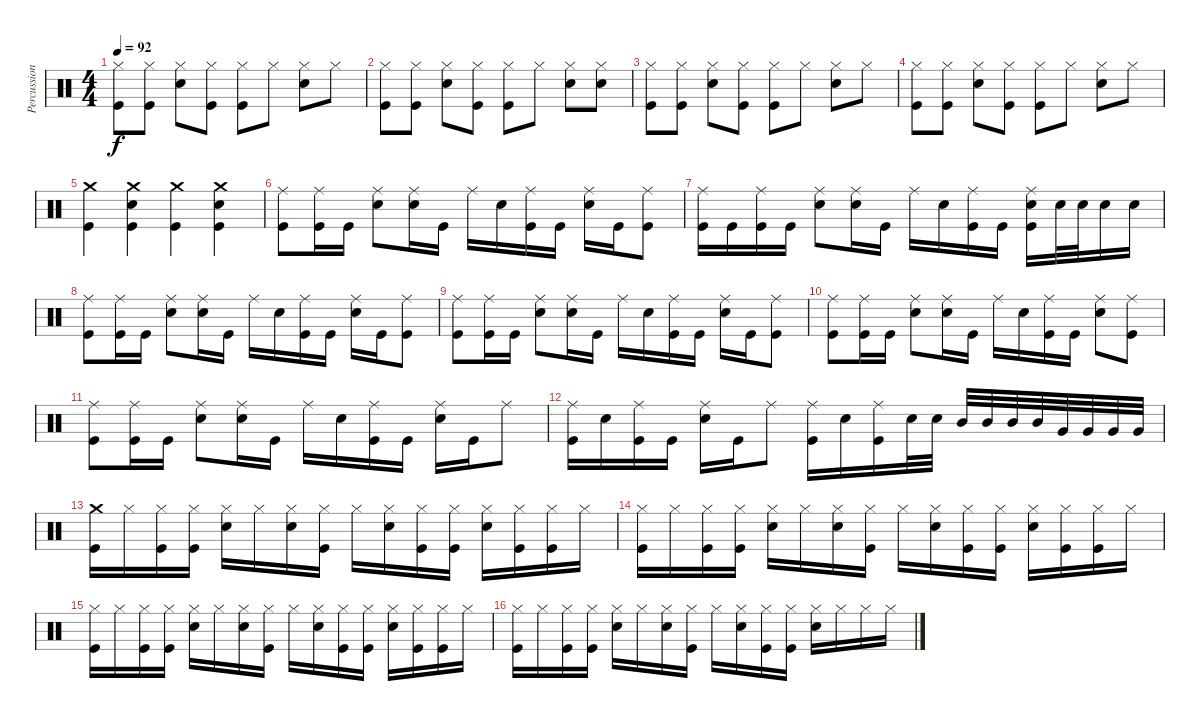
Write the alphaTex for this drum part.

\track ("Percussion" "Percussion") {instrument percussion}
\staff {score}
\articulation defaults
\ts (4 4)
\tempo 92
\clef neutral
\ks c
("Hi-Hat (closed)" "Kick (hit)").8{dy f} ("Hi-Hat (closed)" "Kick (hit)").8 ("Hi-Hat (closed)" "Snare (hit) 2").8 ("Hi-Hat (closed)" "Kick (hit)").8 ("Hi-Hat (closed)" "Kick (hit)").8 "Hi-Hat (closed)".8 ("Hi-Hat (closed)" "Snare (hit) 2").8 "Hi-Hat (closed)".8 |
("Hi-Hat (closed)" "Kick (hit)").8 ("Hi-Hat (closed)" "Kick (hit)").8 ("Hi-Hat (closed)" "Snare (hit) 2").8 ("Hi-Hat (closed)" "Kick (hit)").8 ("Hi-Hat (closed)" "Kick (hit)").8 "Hi-Hat (closed)".8 ("Hi-Hat (closed)" "Snare (hit) 2").8 ("Hi-Hat (closed)" "Snare (hit) 2").8 |
("Hi-Hat (closed)" "Kick (hit)").8 ("Hi-Hat (closed)" "Kick (hit)").8 ("Hi-Hat (closed)" "Snare (hit) 2").8 ("Hi-Hat (closed)" "Kick (hit)").8 ("Hi-Hat (closed)" "Kick (hit)").8 "Hi-Hat (closed)".8 ("Hi-Hat (closed)" "Snare (hit) 2").8 "Hi-Hat (closed)".8 |
("Hi-Hat (closed)" "Kick (hit)").8 ("Hi-Hat (closed)" "Kick (hit)").8 ("Hi-Hat (closed)" "Snare (hit) 2").8 ("Hi-Hat (closed)" "Kick (hit)").8 ("Hi-Hat (closed)" "Kick (hit)").8 "Hi-Hat (closed)".8 ("Hi-Hat (closed)" "Snare (hit) 2").8 "Hi-Hat (closed)".8 |
("Crash medium (hit)" "Kick (hit)").4 ("Crash medium (hit)" "Snare (hit) 2" "Kick (hit)").4 ("Crash medium (hit)" "Kick (hit)").4 ("Crash medium (hit)" "Snare (hit) 2" "Kick (hit)").4 |
("Ride (middle)" "Kick (hit)").8 ("Ride (middle)" "Kick (hit)").16 "Kick (hit)".16 ("Ride (middle)" "Snare (hit) 2").8 ("Ride (middle)" "Snare (hit) 2").16 "Kick (hit)".16 "Ride (middle)".16 "Snare (hit) 2".16 ("Ride (middle)" "Kick (hit)").16 "Kick (hit)".16 ("Ride (middle)" "Snare (hit) 2").16 "Kick (hit)".16 ("Ride (middle)" "Kick (hit)").8 |
("Ride (middle)" "Kick (hit)").16 "Kick (hit)".16 ("Ride (middle)" "Kick (hit)").16 "Kick (hit)".16 ("Ride (middle)" "Snare (hit) 2").8 ("Ride (middle)" "Snare (hit) 2").16 "Kick (hit)".16 "Ride (middle)".16 "Snare (hit) 2".16 ("Ride (middle)" "Kick (hit)").16 "Kick (hit)".16 ("Ride (middle)" "Snare (hit) 2" "Kick (hit)").16 "Snare (hit) 2".32 "Snare (hit) 2".32 "Snare (hit) 2".16 "Snare (hit) 2".16 |
("Ride (middle)" "Kick (hit)").8 ("Ride (middle)" "Kick (hit)").16 "Kick (hit)".16 ("Ride (middle)" "Snare (hit) 2").8 ("Ride (middle)" "Snare (hit) 2").16 "Kick (hit)".16 "Ride (middle)".16 "Snare (hit) 2".16 ("Ride (middle)" "Kick (hit)").16 "Kick (hit)".16 ("Ride (middle)" "Snare (hit) 2").16 "Kick (hit)".16 ("Ride (middle)" "Kick (hit)").8 |
("Ride (middle)" "Kick (hit)").8 ("Ride (middle)" "Kick (hit)").16 "Kick (hit)".16 ("Ride (middle)" "Snare (hit) 2").8 ("Ride (middle)" "Snare (hit) 2").16 "Kick (hit)".16 "Ride (middle)".16 "Snare (hit) 2".16 ("Ride (middle)" "Kick (hit)").16 "Kick (hit)".16 ("Ride (middle)" "Snare (hit) 2").16 "Kick (hit)".16 ("Ride (middle)" "Kick (hit)").8 |
("Ride (middle)" "Kick (hit)").8 ("Ride (middle)" "Kick (hit)").16 "Kick (hit)".16 ("Ride (middle)" "Snare (hit) 2").8 ("Ride (middle)" "Snare (hit) 2").16 "Kick (hit)".16 "Ride (middle)".16 "Snare (hit) 2".16 ("Ride (middle)" "Kick (hit)").16 "Kick (hit)".16 ("Ride (middle)" "Snare (hit) 2").8 ("Ride (middle)" "Kick (hit)").8 |
("Ride (middle)" "Kick (hit)").8 ("Ride (middle)" "Kick (hit)").16 "Kick (hit)".16 ("Ride (middle)" "Snare (hit) 2").8 ("Ride (middle)" "Snare (hit) 2").16 "Kick (hit)".16 "Ride (middle)".16 "Snare (hit) 2".16 ("Ride (middle)" "Kick (hit)").16 "Kick (hit)".16 ("Ride (middle)" "Snare (hit) 2").16 "Kick (hit)".16 "Ride (middle)".8 |
("Ride (middle)" "Kick (hit)").16 "Snare (hit) 2".16 ("Ride (middle)" "Kick (hit)").16 "Kick (hit)".16 ("Ride (middle)" "Snare (hit) 2").16 "Kick (hit)".16 "Ride (middle)".8 ("Ride (middle)" "Kick (hit)").16 "Snare (hit) 2".16 ("Ride (middle)" "Kick (hit)").16 "Snare (hit) 2".32 "Snare (hit) 2".32 "Mid Tom (hit)".32 "Mid Tom (hit)".32 "Mid Tom (hit)".32 "Mid Tom (hit)".32 "Very Low Tom (hit)".32 "Very Low Tom (hit)".32 "Very Low Tom (hit)".32 "Very Low Tom (hit)".32 |
("Crash medium (hit)" "Kick (hit)").16 "Hi-Hat (closed)".16 ("Hi-Hat (closed)" "Kick (hit)").16 ("Hi-Hat (closed)" "Kick (hit)").16 ("Hi-Hat (closed)" "Snare (hit) 2").16 "Hi-Hat (closed)".16 ("Hi-Hat (closed)" "Snare (hit) 2").16 ("Hi-Hat (closed)" "Kick (hit)").16 "Hi-Hat (closed)".16 ("Hi-Hat (closed)" "Snare (hit) 2").16 ("Hi-Hat (closed)" "Kick (hit)").16 ("Hi-Hat (closed)" "Kick (hit)").16 ("Hi-Hat (closed)" "Snare (hit) 2").16 ("Hi-Hat (closed)" "Kick (hit)").16 ("Hi-Hat (closed)" "Kick (hit)").16 "Hi-Hat (closed)".16 |
("Hi-Hat (closed)" "Kick (hit)").16 "Hi-Hat (closed)".16 ("Hi-Hat (closed)" "Kick (hit)").16 ("Hi-Hat (closed)" "Kick (hit)").16 ("Hi-Hat (closed)" "Snare (hit) 2").16 "Hi-Hat (closed)".16 ("Hi-Hat (closed)" "Snare (hit) 2").16 ("Hi-Hat (closed)" "Kick (hit)").16 "Hi-Hat (closed)".16 ("Hi-Hat (closed)" "Snare (hit) 2").16 ("Hi-Hat (closed)" "Kick (hit)").16 ("Hi-Hat (closed)" "Kick (hit)").16 ("Hi-Hat (closed)" "Snare (hit) 2").16 ("Hi-Hat (closed)" "Kick (hit)").16 ("Hi-Hat (closed)" "Kick (hit)").16 "Hi-Hat (closed)".16 |
("Hi-Hat (closed)" "Kick (hit)").16 "Hi-Hat (closed)".16 ("Hi-Hat (closed)" "Kick (hit)").16 ("Hi-Hat (closed)" "Kick (hit)").16 ("Hi-Hat (closed)" "Snare (hit) 2").16 "Hi-Hat (closed)".16 ("Hi-Hat (closed)" "Snare (hit) 2").16 ("Hi-Hat (closed)" "Kick (hit)").16 "Hi-Hat (closed)".16 ("Hi-Hat (closed)" "Snare (hit) 2").16 ("Hi-Hat (closed)" "Kick (hit)").16 ("Hi-Hat (closed)" "Kick (hit)").16 ("Hi-Hat (closed)" "Snare (hit) 2").16 ("Hi-Hat (closed)" "Kick (hit)").16 ("Hi-Hat (closed)" "Kick (hit)").16 "Hi-Hat (closed)".16 |
("Hi-Hat (closed)" "Kick (hit)").16 "Hi-Hat (closed)".16 ("Hi-Hat (closed)" "Kick (hit)").16 ("Hi-Hat (closed)" "Kick (hit)").16 ("Hi-Hat (closed)" "Snare (hit) 2").16 "Hi-Hat (closed)".16 ("Hi-Hat (closed)" "Snare (hit) 2").16 ("Hi-Hat (closed)" "Kick (hit)").16 "Hi-Hat (closed)".16 ("Hi-Hat (closed)" "Snare (hit) 2").16 ("Hi-Hat (closed)" "Kick (hit)").16 ("Hi-Hat (closed)" "Kick (hit)").16 ("Hi-Hat (closed)" "Snare (hit) 2").16 "Hi-Hat (closed)".16 "Hi-Hat (closed)".16 "Hi-Hat (closed)".16
